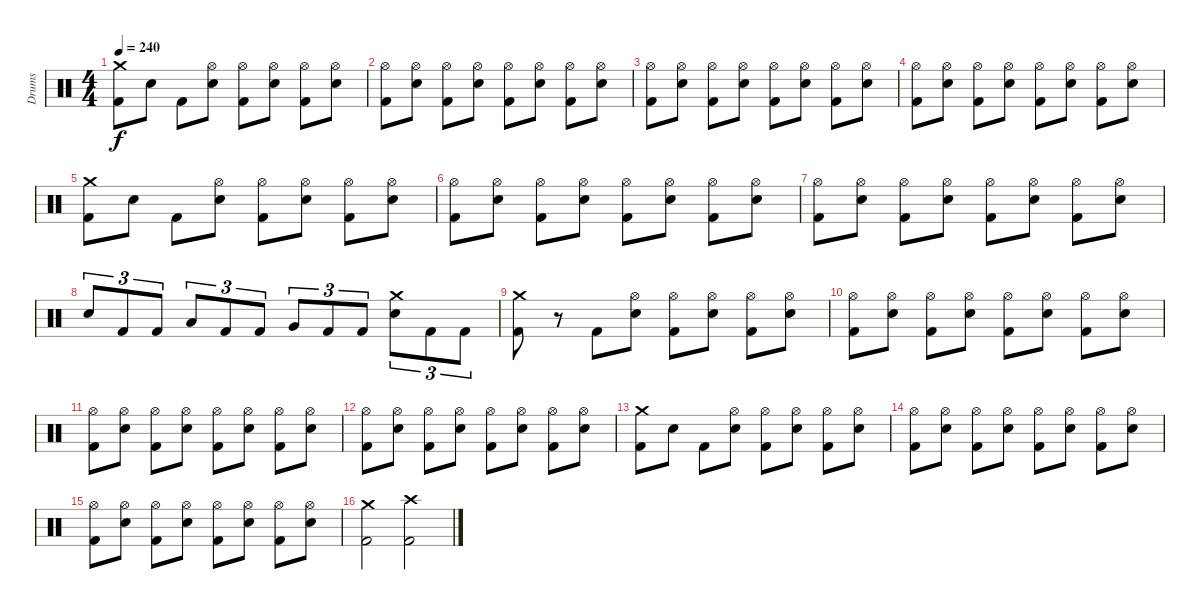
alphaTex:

\track ("Drums" "Drums") {instrument percussion}
\staff {score}
\articulation defaults
\ts (4 4)
\tempo 240
\clef neutral
\ks c
("Crash medium (hit)" "Kick (hit) 2").8{dy f} "Snare (hit) 2".8 "Kick (hit) 2".8 ("Hi-Hat (open)" "Snare (hit) 2").8 ("Hi-Hat (open)" "Kick (hit) 2").8 ("Hi-Hat (open)" "Snare (hit) 2").8 ("Hi-Hat (open)" "Kick (hit) 2").8 ("Hi-Hat (open)" "Snare (hit) 2").8 |
("Hi-Hat (open)" "Kick (hit) 2").8 ("Hi-Hat (open)" "Snare (hit) 2").8 ("Hi-Hat (open)" "Kick (hit) 2").8 ("Hi-Hat (open)" "Snare (hit) 2").8 ("Hi-Hat (open)" "Kick (hit) 2").8 ("Hi-Hat (open)" "Snare (hit) 2").8 ("Hi-Hat (open)" "Kick (hit) 2").8 ("Hi-Hat (open)" "Snare (hit) 2").8 |
("Hi-Hat (open)" "Kick (hit) 2").8 ("Hi-Hat (open)" "Snare (hit) 2").8 ("Hi-Hat (open)" "Kick (hit) 2").8 ("Hi-Hat (open)" "Snare (hit) 2").8 ("Hi-Hat (open)" "Kick (hit) 2").8 ("Hi-Hat (open)" "Snare (hit) 2").8 ("Hi-Hat (open)" "Kick (hit) 2").8 ("Hi-Hat (open)" "Snare (hit) 2").8 |
("Hi-Hat (open)" "Kick (hit) 2").8 ("Hi-Hat (open)" "Snare (hit) 2").8 ("Hi-Hat (open)" "Kick (hit) 2").8 ("Hi-Hat (open)" "Snare (hit) 2").8 ("Hi-Hat (open)" "Kick (hit) 2").8 ("Hi-Hat (open)" "Snare (hit) 2").8 ("Hi-Hat (open)" "Kick (hit) 2").8 ("Hi-Hat (open)" "Snare (hit) 2").8 |
("Crash medium (hit)" "Kick (hit) 2").8 "Snare (hit) 2".8 "Kick (hit) 2".8 ("Hi-Hat (open)" "Snare (hit) 2").8 ("Hi-Hat (open)" "Kick (hit) 2").8 ("Hi-Hat (open)" "Snare (hit) 2").8 ("Hi-Hat (open)" "Kick (hit) 2").8 ("Hi-Hat (open)" "Snare (hit) 2").8 |
("Hi-Hat (open)" "Kick (hit) 2").8 ("Hi-Hat (open)" "Snare (hit) 2").8 ("Hi-Hat (open)" "Kick (hit) 2").8 ("Hi-Hat (open)" "Snare (hit) 2").8 ("Hi-Hat (open)" "Kick (hit) 2").8 ("Hi-Hat (open)" "Snare (hit) 2").8 ("Hi-Hat (open)" "Kick (hit) 2").8 ("Hi-Hat (open)" "Snare (hit) 2").8 |
("Hi-Hat (open)" "Kick (hit) 2").8 ("Hi-Hat (open)" "Snare (hit) 2").8 ("Hi-Hat (open)" "Kick (hit) 2").8 ("Hi-Hat (open)" "Snare (hit) 2").8 ("Hi-Hat (open)" "Kick (hit) 2").8 ("Hi-Hat (open)" "Snare (hit) 2").8 ("Hi-Hat (open)" "Kick (hit) 2").8 ("Hi-Hat (open)" "Snare (hit) 2").8 |
"Snare (hit) 2".8{tu (3 2)} "Kick (hit) 2".8{tu (3 2)} "Kick (hit) 2".8{tu (3 2)} "Low Tom (hit)".8{tu (3 2)} "Kick (hit) 2".8{tu (3 2)} "Kick (hit) 2".8{tu (3 2)} "Very Low Tom (hit)".8{tu (3 2)} "Kick (hit) 2".8{tu (3 2)} "Kick (hit) 2".8{tu (3 2)} ("Crash medium (hit)" "Snare (hit) 2").8{tu (3 2)} "Kick (hit) 2".8{tu (3 2)} "Kick (hit) 2".8{tu (3 2)} |
("Crash medium (hit)" "Kick (hit) 2").8 r.8 "Kick (hit) 2".8 ("Hi-Hat (open)" "Snare (hit) 2").8 ("Hi-Hat (open)" "Kick (hit) 2").8 ("Hi-Hat (open)" "Snare (hit) 2").8 ("Hi-Hat (open)" "Kick (hit) 2").8 ("Hi-Hat (open)" "Snare (hit) 2").8 |
("Hi-Hat (open)" "Kick (hit) 2").8 ("Hi-Hat (open)" "Snare (hit) 2").8 ("Hi-Hat (open)" "Kick (hit) 2").8 ("Hi-Hat (open)" "Snare (hit) 2").8 ("Hi-Hat (open)" "Kick (hit) 2").8 ("Hi-Hat (open)" "Snare (hit) 2").8 ("Hi-Hat (open)" "Kick (hit) 2").8 ("Hi-Hat (open)" "Snare (hit) 2").8 |
("Hi-Hat (open)" "Kick (hit) 2").8 ("Hi-Hat (open)" "Snare (hit) 2").8 ("Hi-Hat (open)" "Kick (hit) 2").8 ("Hi-Hat (open)" "Snare (hit) 2").8 ("Hi-Hat (open)" "Kick (hit) 2").8 ("Hi-Hat (open)" "Snare (hit) 2").8 ("Hi-Hat (open)" "Kick (hit) 2").8 ("Hi-Hat (open)" "Snare (hit) 2").8 |
("Hi-Hat (open)" "Kick (hit) 2").8 ("Hi-Hat (open)" "Snare (hit) 2").8 ("Hi-Hat (open)" "Kick (hit) 2").8 ("Hi-Hat (open)" "Snare (hit) 2").8 ("Hi-Hat (open)" "Kick (hit) 2").8 ("Hi-Hat (open)" "Snare (hit) 2").8 ("Hi-Hat (open)" "Kick (hit) 2").8 ("Hi-Hat (open)" "Snare (hit) 2").8 |
("Crash medium (hit)" "Kick (hit) 2").8 "Snare (hit) 2".8 "Kick (hit) 2".8 ("Hi-Hat (open)" "Snare (hit) 2").8 ("Hi-Hat (open)" "Kick (hit) 2").8 ("Hi-Hat (open)" "Snare (hit) 2").8 ("Hi-Hat (open)" "Kick (hit) 2").8 ("Hi-Hat (open)" "Snare (hit) 2").8 |
("Hi-Hat (open)" "Kick (hit) 2").8 ("Hi-Hat (open)" "Snare (hit) 2").8 ("Hi-Hat (open)" "Kick (hit) 2").8 ("Hi-Hat (open)" "Snare (hit) 2").8 ("Hi-Hat (open)" "Kick (hit) 2").8 ("Hi-Hat (open)" "Snare (hit) 2").8 ("Hi-Hat (open)" "Kick (hit) 2").8 ("Hi-Hat (open)" "Snare (hit) 2").8 |
("Hi-Hat (open)" "Kick (hit) 2").8 ("Hi-Hat (open)" "Snare (hit) 2").8 ("Hi-Hat (open)" "Kick (hit) 2").8 ("Hi-Hat (open)" "Snare (hit) 2").8 ("Hi-Hat (open)" "Kick (hit) 2").8 ("Hi-Hat (open)" "Snare (hit) 2").8 ("Hi-Hat (open)" "Kick (hit) 2").8 ("Hi-Hat (open)" "Snare (hit) 2").8 |
("Crash medium (hit)" "Kick (hit) 2").2 ("Crash high (hit)" "Kick (hit) 2").2
